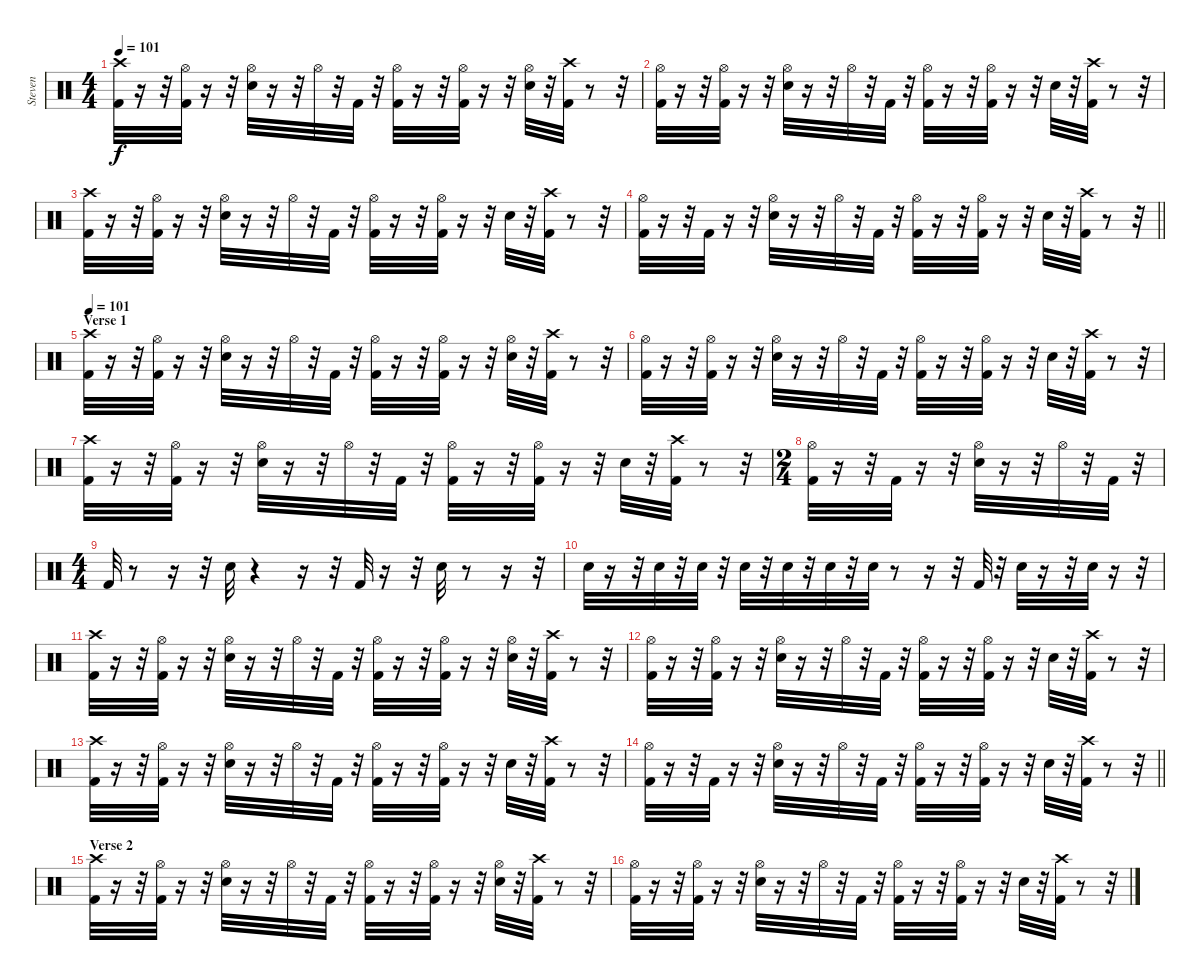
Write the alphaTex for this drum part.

\track ("Steven" "Steven") {instrument percussion}
\staff {score}
\articulation defaults
\ts (4 4)
\tempo 101
\clef neutral
\ks c
("Crash high (hit)" "Kick (hit) 2").32{dy f} r.16 r.32 ("Hi-Hat (open)" "Kick (hit) 2").32 r.16 r.32 ("Hi-Hat (open)" "Snare (hit) 2").32 r.16 r.32 "Hi-Hat (open)".32 r.32 "Kick (hit) 2".32 r.32 ("Kick (hit) 2" "Hi-Hat (open)").32 r.16 r.32 ("Kick (hit) 2" "Hi-Hat (open)").32 r.16 r.32 ("Hi-Hat (open)" "Snare (hit) 2").32 r.32 ("Kick (hit) 2" "Crash high (hit)").32 r.8 r.32 |
("Hi-Hat (open)" "Kick (hit) 2").32 r.16 r.32 ("Kick (hit) 2" "Hi-Hat (open)").32 r.16 r.32 ("Hi-Hat (open)" "Snare (hit) 2").32 r.16 r.32 "Hi-Hat (open)".32 r.32 "Kick (hit) 2".32 r.32 ("Kick (hit) 2" "Hi-Hat (open)").32 r.16 r.32 ("Kick (hit) 2" "Hi-Hat (open)").32 r.16 r.32 "Snare (hit) 2".32 r.32 ("Kick (hit) 2" "Crash high (hit)").32 r.8 r.32 |
("Crash high (hit)" "Kick (hit) 2").32 r.16 r.32 ("Kick (hit) 2" "Hi-Hat (open)").32 r.16 r.32 ("Snare (hit) 2" "Hi-Hat (open)").32 r.16 r.32 "Hi-Hat (open)".32 r.32 "Kick (hit) 2".32 r.32 ("Kick (hit) 2" "Hi-Hat (open)").32 r.16 r.32 ("Hi-Hat (open)" "Kick (hit) 2").32 r.16 r.32 "Snare (hit) 2".32 r.32 ("Crash high (hit)" "Kick (hit) 2").32 r.8 r.32 |
\barLineRight lightlight
("Kick (hit) 2" "Hi-Hat (open)").32 r.16 r.32 "Kick (hit) 2".32 r.16 r.32 ("Snare (hit) 2" "Hi-Hat (open)").32 r.16 r.32 "Hi-Hat (open)".32 r.32 "Kick (hit) 2".32 r.32 ("Hi-Hat (open)" "Kick (hit) 2").32 r.16 r.32 ("Kick (hit) 2" "Hi-Hat (open)").32 r.16 r.32 "Snare (hit) 2".32 r.32 ("Kick (hit) 2" "Crash high (hit)").32 r.8 r.32 |
\section ("" "Verse 1")
\tempo 101
("Crash high (hit)" "Kick (hit) 2").32 r.16 r.32 ("Hi-Hat (open)" "Kick (hit) 2").32 r.16 r.32 ("Hi-Hat (open)" "Snare (hit) 2").32 r.16 r.32 "Hi-Hat (open)".32 r.32 "Kick (hit) 2".32 r.32 ("Kick (hit) 2" "Hi-Hat (open)").32 r.16 r.32 ("Kick (hit) 2" "Hi-Hat (open)").32 r.16 r.32 ("Hi-Hat (open)" "Snare (hit) 2").32 r.32 ("Kick (hit) 2" "Crash high (hit)").32 r.8 r.32 |
("Hi-Hat (open)" "Kick (hit) 2").32 r.16 r.32 ("Kick (hit) 2" "Hi-Hat (open)").32 r.16 r.32 ("Hi-Hat (open)" "Snare (hit) 2").32 r.16 r.32 "Hi-Hat (open)".32 r.32 "Kick (hit) 2".32 r.32 ("Kick (hit) 2" "Hi-Hat (open)").32 r.16 r.32 ("Kick (hit) 2" "Hi-Hat (open)").32 r.16 r.32 "Snare (hit) 2".32 r.32 ("Kick (hit) 2" "Crash high (hit)").32 r.8 r.32 |
("Crash high (hit)" "Kick (hit) 2").32 r.16 r.32 ("Kick (hit) 2" "Hi-Hat (open)").32 r.16 r.32 ("Snare (hit) 2" "Hi-Hat (open)").32 r.16 r.32 "Hi-Hat (open)".32 r.32 "Kick (hit) 2".32 r.32 ("Kick (hit) 2" "Hi-Hat (open)").32 r.16 r.32 ("Hi-Hat (open)" "Kick (hit) 2").32 r.16 r.32 "Snare (hit) 2".32 r.32 ("Crash high (hit)" "Kick (hit) 2").32 r.8 r.32 |
\ts (2 4)
("Kick (hit) 2" "Hi-Hat (open)").32 r.16 r.32 "Kick (hit) 2".32 r.16 r.32 ("Snare (hit) 2" "Hi-Hat (open)").32 r.16 r.32 "Hi-Hat (open)".32 r.32 "Kick (hit) 2".32 r.32 |
\ts (4 4)
"Kick (hit) 2".32 r.8 r.16 r.32 "Snare (hit) 2".32 r.4 r.16 r.32 "Kick (hit) 2".32 r.16 r.32 "Snare (hit) 2".32 r.8 r.16 r.32 |
"Snare (hit) 2".32 r.16 r.32 "Snare (hit) 2".32 r.32 "Snare (hit) 2".32 r.32 "Snare (hit) 2".32 r.32 "Snare (hit) 2".32 r.32 "Snare (hit) 2".32 r.32 "Snare (hit) 2".32 r.8 r.16 r.32 "Kick (hit) 2".32 r.32 "Snare (hit) 2".32 r.16 r.32 "Snare (hit) 2".32 r.16 r.32 |
("Crash high (hit)" "Kick (hit) 2").32 r.16 r.32 ("Hi-Hat (open)" "Kick (hit) 2").32 r.16 r.32 ("Hi-Hat (open)" "Snare (hit) 2").32 r.16 r.32 "Hi-Hat (open)".32 r.32 "Kick (hit) 2".32 r.32 ("Kick (hit) 2" "Hi-Hat (open)").32 r.16 r.32 ("Kick (hit) 2" "Hi-Hat (open)").32 r.16 r.32 ("Hi-Hat (open)" "Snare (hit) 2").32 r.32 ("Kick (hit) 2" "Crash high (hit)").32 r.8 r.32 |
("Hi-Hat (open)" "Kick (hit) 2").32 r.16 r.32 ("Kick (hit) 2" "Hi-Hat (open)").32 r.16 r.32 ("Hi-Hat (open)" "Snare (hit) 2").32 r.16 r.32 "Hi-Hat (open)".32 r.32 "Kick (hit) 2".32 r.32 ("Kick (hit) 2" "Hi-Hat (open)").32 r.16 r.32 ("Kick (hit) 2" "Hi-Hat (open)").32 r.16 r.32 "Snare (hit) 2".32 r.32 ("Kick (hit) 2" "Crash high (hit)").32 r.8 r.32 |
("Crash high (hit)" "Kick (hit) 2").32 r.16 r.32 ("Kick (hit) 2" "Hi-Hat (open)").32 r.16 r.32 ("Snare (hit) 2" "Hi-Hat (open)").32 r.16 r.32 "Hi-Hat (open)".32 r.32 "Kick (hit) 2".32 r.32 ("Kick (hit) 2" "Hi-Hat (open)").32 r.16 r.32 ("Hi-Hat (open)" "Kick (hit) 2").32 r.16 r.32 "Snare (hit) 2".32 r.32 ("Crash high (hit)" "Kick (hit) 2").32 r.8 r.32 |
\barLineRight lightlight
("Kick (hit) 2" "Hi-Hat (open)").32 r.16 r.32 "Kick (hit) 2".32 r.16 r.32 ("Snare (hit) 2" "Hi-Hat (open)").32 r.16 r.32 "Hi-Hat (open)".32 r.32 "Kick (hit) 2".32 r.32 ("Hi-Hat (open)" "Kick (hit) 2").32 r.16 r.32 ("Kick (hit) 2" "Hi-Hat (open)").32 r.16 r.32 "Snare (hit) 2".32 r.32 ("Kick (hit) 2" "Crash high (hit)").32 r.8 r.32 |
\section ("" "Verse 2")
("Crash high (hit)" "Kick (hit) 2").32 r.16 r.32 ("Hi-Hat (open)" "Kick (hit) 2").32 r.16 r.32 ("Hi-Hat (open)" "Snare (hit) 2").32 r.16 r.32 "Hi-Hat (open)".32 r.32 "Kick (hit) 2".32 r.32 ("Kick (hit) 2" "Hi-Hat (open)").32 r.16 r.32 ("Kick (hit) 2" "Hi-Hat (open)").32 r.16 r.32 ("Hi-Hat (open)" "Snare (hit) 2").32 r.32 ("Kick (hit) 2" "Crash high (hit)").32 r.8 r.32 |
("Hi-Hat (open)" "Kick (hit) 2").32 r.16 r.32 ("Kick (hit) 2" "Hi-Hat (open)").32 r.16 r.32 ("Hi-Hat (open)" "Snare (hit) 2").32 r.16 r.32 "Hi-Hat (open)".32 r.32 "Kick (hit) 2".32 r.32 ("Kick (hit) 2" "Hi-Hat (open)").32 r.16 r.32 ("Kick (hit) 2" "Hi-Hat (open)").32 r.16 r.32 "Snare (hit) 2".32 r.32 ("Kick (hit) 2" "Crash high (hit)").32 r.8 r.32
